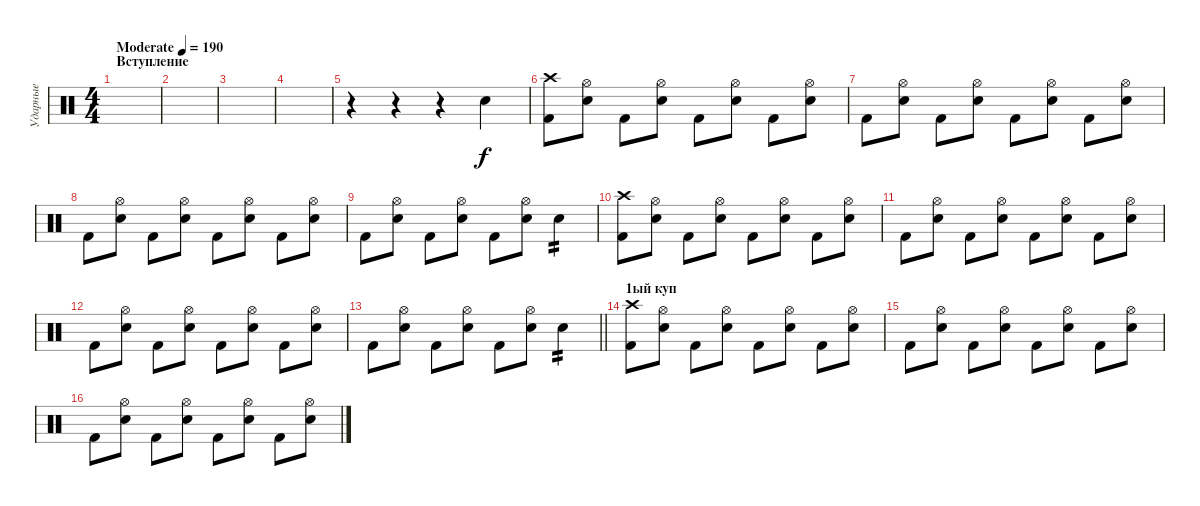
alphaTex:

\track ("Ударные" "Ударные") {instrument percussion}
\staff {score}
\articulation defaults
\ts (4 4)
\section ("" "Вступление")
\tempo (190 "Moderate")
\clef neutral
\ks c
|
|
|
|
r.4 r.4 r.4 "Electric Snare (hit)".4 |
("Crash high (hit)" "Kick (hit) 2").8 ("Hi-Hat (open)" "Electric Snare (hit)").8 "Kick (hit) 2".8 ("Hi-Hat (open)" "Electric Snare (hit)").8 "Kick (hit) 2".8 ("Hi-Hat (open)" "Electric Snare (hit)").8 "Kick (hit) 2".8 ("Hi-Hat (open)" "Electric Snare (hit)").8 |
"Kick (hit) 2".8 ("Hi-Hat (open)" "Electric Snare (hit)").8 "Kick (hit) 2".8 ("Hi-Hat (open)" "Electric Snare (hit)").8 "Kick (hit) 2".8 ("Hi-Hat (open)" "Electric Snare (hit)").8 "Kick (hit) 2".8 ("Hi-Hat (open)" "Electric Snare (hit)").8 |
"Kick (hit) 2".8 ("Hi-Hat (open)" "Electric Snare (hit)").8 "Kick (hit) 2".8 ("Hi-Hat (open)" "Electric Snare (hit)").8 "Kick (hit) 2".8 ("Hi-Hat (open)" "Electric Snare (hit)").8 "Kick (hit) 2".8 ("Hi-Hat (open)" "Electric Snare (hit)").8 |
"Kick (hit) 2".8 ("Hi-Hat (open)" "Electric Snare (hit)").8 "Kick (hit) 2".8 ("Hi-Hat (open)" "Electric Snare (hit)").8 "Kick (hit) 2".8 ("Hi-Hat (open)" "Electric Snare (hit)").8 "Electric Snare (hit)".4{tp 2} |
("Crash high (hit)" "Kick (hit) 2").8 ("Hi-Hat (open)" "Electric Snare (hit)").8 "Kick (hit) 2".8 ("Hi-Hat (open)" "Electric Snare (hit)").8 "Kick (hit) 2".8 ("Hi-Hat (open)" "Electric Snare (hit)").8 "Kick (hit) 2".8 ("Hi-Hat (open)" "Electric Snare (hit)").8 |
"Kick (hit) 2".8 ("Hi-Hat (open)" "Electric Snare (hit)").8 "Kick (hit) 2".8 ("Hi-Hat (open)" "Electric Snare (hit)").8 "Kick (hit) 2".8 ("Hi-Hat (open)" "Electric Snare (hit)").8 "Kick (hit) 2".8 ("Hi-Hat (open)" "Electric Snare (hit)").8 |
"Kick (hit) 2".8 ("Hi-Hat (open)" "Electric Snare (hit)").8 "Kick (hit) 2".8 ("Hi-Hat (open)" "Electric Snare (hit)").8 "Kick (hit) 2".8 ("Hi-Hat (open)" "Electric Snare (hit)").8 "Kick (hit) 2".8 ("Hi-Hat (open)" "Electric Snare (hit)").8 |
\barLineRight lightlight "Kick (hit) 2".8
("Hi-Hat (open)" "Electric Snare (hit)").8 "Kick (hit) 2".8 ("Hi-Hat (open)" "Electric Snare (hit)").8 "Kick (hit) 2".8 ("Hi-Hat (open)" "Electric Snare (hit)").8 "Electric Snare (hit)".4{tp 2} |
\section ("" "1ый куп")
("Crash high (hit)" "Kick (hit) 2").8 ("Hi-Hat (open)" "Electric Snare (hit)").8 "Kick (hit) 2".8 ("Hi-Hat (open)" "Electric Snare (hit)").8 "Kick (hit) 2".8 ("Hi-Hat (open)" "Electric Snare (hit)").8 "Kick (hit) 2".8 ("Hi-Hat (open)" "Electric Snare (hit)").8 |
"Kick (hit) 2".8 ("Hi-Hat (open)" "Electric Snare (hit)").8 "Kick (hit) 2".8 ("Hi-Hat (open)" "Electric Snare (hit)").8 "Kick (hit) 2".8 ("Hi-Hat (open)" "Electric Snare (hit)").8 "Kick (hit) 2".8 ("Hi-Hat (open)" "Electric Snare (hit)").8 |
"Kick (hit) 2".8 ("Hi-Hat (open)" "Electric Snare (hit)").8 "Kick (hit) 2".8 ("Hi-Hat (open)" "Electric Snare (hit)").8 "Kick (hit) 2".8 ("Hi-Hat (open)" "Electric Snare (hit)").8 "Kick (hit) 2".8 ("Hi-Hat (open)" "Electric Snare (hit)").8
